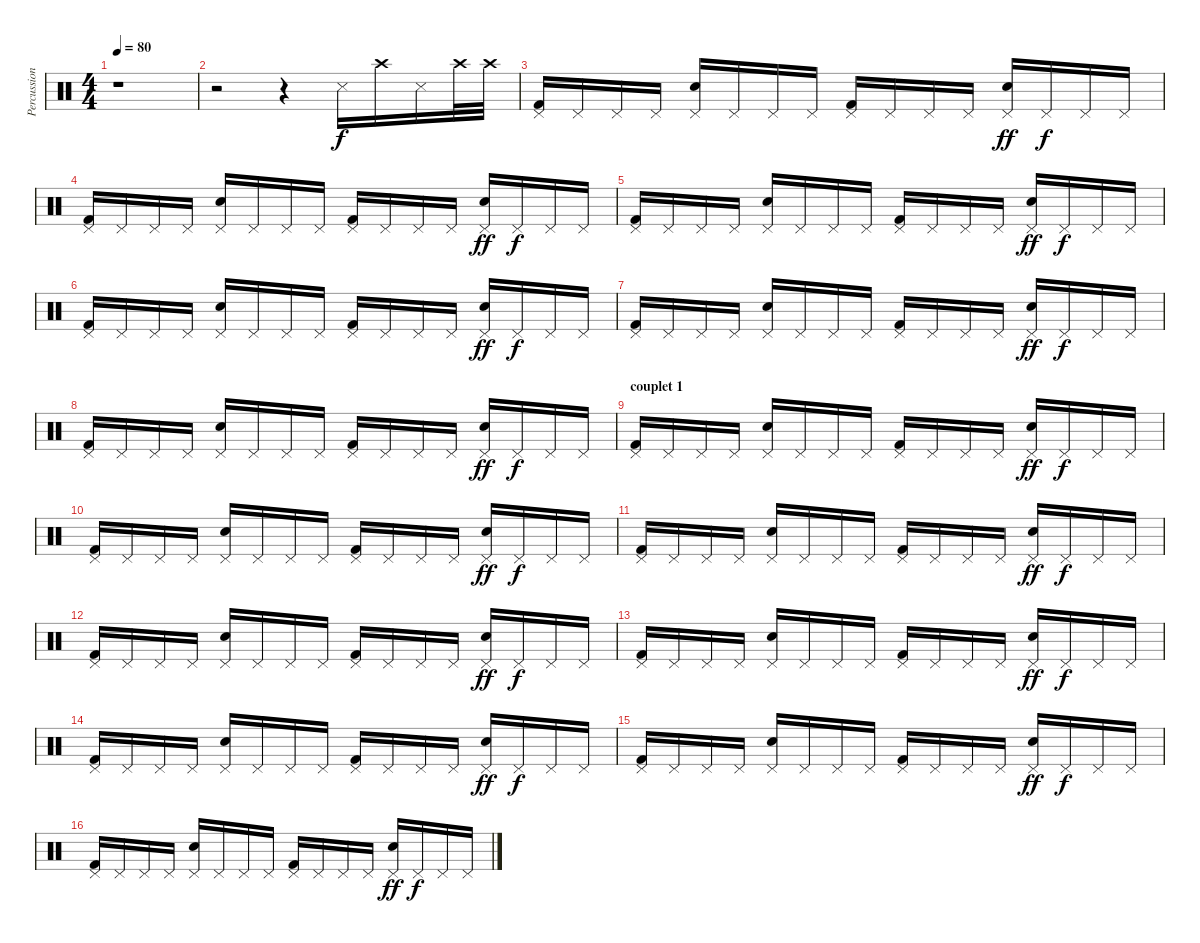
\track ("Percussions" "Percussion") {instrument percussion}
\staff {score}
\articulation defaults
\ts (4 4)
\tempo 80
\clef neutral
\ks c
r.1{dy f} |
r.2 r.4 "Snare (side stick) 3".16 "Crash high (hit)".16 "Snare (side stick) 3".16 "Crash high (hit)".32 "Crash high (hit)".32 |
("Pedal Hi-Hat (hit)" "Kick (hit) 2").16 "Pedal Hi-Hat (hit)".16 "Pedal Hi-Hat (hit)".16 "Pedal Hi-Hat (hit)".16 ("Pedal Hi-Hat (hit)" "Electric Snare (hit)").16 "Pedal Hi-Hat (hit)".16 "Pedal Hi-Hat (hit)".16 "Pedal Hi-Hat (hit)".16 ("Pedal Hi-Hat (hit)" "Kick (hit) 2").16 "Pedal Hi-Hat (hit)".16 "Pedal Hi-Hat (hit)".16 "Pedal Hi-Hat (hit)".16 ("Pedal Hi-Hat (hit)" "Electric Snare (hit)").16{dy ff} "Pedal Hi-Hat (hit)".16{dy f} "Pedal Hi-Hat (hit)".16 "Pedal Hi-Hat (hit)".16 |
("Pedal Hi-Hat (hit)" "Kick (hit) 2").16 "Pedal Hi-Hat (hit)".16 "Pedal Hi-Hat (hit)".16 "Pedal Hi-Hat (hit)".16 ("Pedal Hi-Hat (hit)" "Electric Snare (hit)").16 "Pedal Hi-Hat (hit)".16 "Pedal Hi-Hat (hit)".16 "Pedal Hi-Hat (hit)".16 ("Pedal Hi-Hat (hit)" "Kick (hit) 2").16 "Pedal Hi-Hat (hit)".16 "Pedal Hi-Hat (hit)".16 "Pedal Hi-Hat (hit)".16 ("Pedal Hi-Hat (hit)" "Electric Snare (hit)").16{dy ff} "Pedal Hi-Hat (hit)".16{dy f} "Pedal Hi-Hat (hit)".16 "Pedal Hi-Hat (hit)".16 |
("Pedal Hi-Hat (hit)" "Kick (hit) 2").16 "Pedal Hi-Hat (hit)".16 "Pedal Hi-Hat (hit)".16 "Pedal Hi-Hat (hit)".16 ("Pedal Hi-Hat (hit)" "Electric Snare (hit)").16 "Pedal Hi-Hat (hit)".16 "Pedal Hi-Hat (hit)".16 "Pedal Hi-Hat (hit)".16 ("Pedal Hi-Hat (hit)" "Kick (hit) 2").16 "Pedal Hi-Hat (hit)".16 "Pedal Hi-Hat (hit)".16 "Pedal Hi-Hat (hit)".16 ("Pedal Hi-Hat (hit)" "Electric Snare (hit)").16{dy ff} "Pedal Hi-Hat (hit)".16{dy f} "Pedal Hi-Hat (hit)".16 "Pedal Hi-Hat (hit)".16 |
("Pedal Hi-Hat (hit)" "Kick (hit) 2").16 "Pedal Hi-Hat (hit)".16 "Pedal Hi-Hat (hit)".16 "Pedal Hi-Hat (hit)".16 ("Pedal Hi-Hat (hit)" "Electric Snare (hit)").16 "Pedal Hi-Hat (hit)".16 "Pedal Hi-Hat (hit)".16 "Pedal Hi-Hat (hit)".16 ("Pedal Hi-Hat (hit)" "Kick (hit) 2").16 "Pedal Hi-Hat (hit)".16 "Pedal Hi-Hat (hit)".16 "Pedal Hi-Hat (hit)".16 ("Pedal Hi-Hat (hit)" "Electric Snare (hit)").16{dy ff} "Pedal Hi-Hat (hit)".16{dy f} "Pedal Hi-Hat (hit)".16 "Pedal Hi-Hat (hit)".16 |
("Pedal Hi-Hat (hit)" "Kick (hit) 2").16 "Pedal Hi-Hat (hit)".16 "Pedal Hi-Hat (hit)".16 "Pedal Hi-Hat (hit)".16 ("Pedal Hi-Hat (hit)" "Electric Snare (hit)").16 "Pedal Hi-Hat (hit)".16 "Pedal Hi-Hat (hit)".16 "Pedal Hi-Hat (hit)".16 ("Pedal Hi-Hat (hit)" "Kick (hit) 2").16 "Pedal Hi-Hat (hit)".16 "Pedal Hi-Hat (hit)".16 "Pedal Hi-Hat (hit)".16 ("Pedal Hi-Hat (hit)" "Electric Snare (hit)").16{dy ff} "Pedal Hi-Hat (hit)".16{dy f} "Pedal Hi-Hat (hit)".16 "Pedal Hi-Hat (hit)".16 |
("Pedal Hi-Hat (hit)" "Kick (hit) 2").16 "Pedal Hi-Hat (hit)".16 "Pedal Hi-Hat (hit)".16 "Pedal Hi-Hat (hit)".16 ("Pedal Hi-Hat (hit)" "Electric Snare (hit)").16 "Pedal Hi-Hat (hit)".16 "Pedal Hi-Hat (hit)".16 "Pedal Hi-Hat (hit)".16 ("Pedal Hi-Hat (hit)" "Kick (hit) 2").16 "Pedal Hi-Hat (hit)".16 "Pedal Hi-Hat (hit)".16 "Pedal Hi-Hat (hit)".16 ("Pedal Hi-Hat (hit)" "Electric Snare (hit)").16{dy ff} "Pedal Hi-Hat (hit)".16{dy f} "Pedal Hi-Hat (hit)".16 "Pedal Hi-Hat (hit)".16 |
\section ("" "couplet 1")
("Pedal Hi-Hat (hit)" "Kick (hit) 2").16 "Pedal Hi-Hat (hit)".16 "Pedal Hi-Hat (hit)".16 "Pedal Hi-Hat (hit)".16 ("Pedal Hi-Hat (hit)" "Electric Snare (hit)").16 "Pedal Hi-Hat (hit)".16 "Pedal Hi-Hat (hit)".16 "Pedal Hi-Hat (hit)".16 ("Pedal Hi-Hat (hit)" "Kick (hit) 2").16 "Pedal Hi-Hat (hit)".16 "Pedal Hi-Hat (hit)".16 "Pedal Hi-Hat (hit)".16 ("Pedal Hi-Hat (hit)" "Electric Snare (hit)").16{dy ff} "Pedal Hi-Hat (hit)".16{dy f} "Pedal Hi-Hat (hit)".16 "Pedal Hi-Hat (hit)".16 |
("Pedal Hi-Hat (hit)" "Kick (hit) 2").16 "Pedal Hi-Hat (hit)".16 "Pedal Hi-Hat (hit)".16 "Pedal Hi-Hat (hit)".16 ("Pedal Hi-Hat (hit)" "Electric Snare (hit)").16 "Pedal Hi-Hat (hit)".16 "Pedal Hi-Hat (hit)".16 "Pedal Hi-Hat (hit)".16 ("Pedal Hi-Hat (hit)" "Kick (hit) 2").16 "Pedal Hi-Hat (hit)".16 "Pedal Hi-Hat (hit)".16 "Pedal Hi-Hat (hit)".16 ("Pedal Hi-Hat (hit)" "Electric Snare (hit)").16{dy ff} "Pedal Hi-Hat (hit)".16{dy f} "Pedal Hi-Hat (hit)".16 "Pedal Hi-Hat (hit)".16 |
("Pedal Hi-Hat (hit)" "Kick (hit) 2").16 "Pedal Hi-Hat (hit)".16 "Pedal Hi-Hat (hit)".16 "Pedal Hi-Hat (hit)".16 ("Pedal Hi-Hat (hit)" "Electric Snare (hit)").16 "Pedal Hi-Hat (hit)".16 "Pedal Hi-Hat (hit)".16 "Pedal Hi-Hat (hit)".16 ("Pedal Hi-Hat (hit)" "Kick (hit) 2").16 "Pedal Hi-Hat (hit)".16 "Pedal Hi-Hat (hit)".16 "Pedal Hi-Hat (hit)".16 ("Pedal Hi-Hat (hit)" "Electric Snare (hit)").16{dy ff} "Pedal Hi-Hat (hit)".16{dy f} "Pedal Hi-Hat (hit)".16 "Pedal Hi-Hat (hit)".16 |
("Pedal Hi-Hat (hit)" "Kick (hit) 2").16 "Pedal Hi-Hat (hit)".16 "Pedal Hi-Hat (hit)".16 "Pedal Hi-Hat (hit)".16 ("Pedal Hi-Hat (hit)" "Electric Snare (hit)").16 "Pedal Hi-Hat (hit)".16 "Pedal Hi-Hat (hit)".16 "Pedal Hi-Hat (hit)".16 ("Pedal Hi-Hat (hit)" "Kick (hit) 2").16 "Pedal Hi-Hat (hit)".16 "Pedal Hi-Hat (hit)".16 "Pedal Hi-Hat (hit)".16 ("Pedal Hi-Hat (hit)" "Electric Snare (hit)").16{dy ff} "Pedal Hi-Hat (hit)".16{dy f} "Pedal Hi-Hat (hit)".16 "Pedal Hi-Hat (hit)".16 |
("Pedal Hi-Hat (hit)" "Kick (hit) 2").16 "Pedal Hi-Hat (hit)".16 "Pedal Hi-Hat (hit)".16 "Pedal Hi-Hat (hit)".16 ("Pedal Hi-Hat (hit)" "Electric Snare (hit)").16 "Pedal Hi-Hat (hit)".16 "Pedal Hi-Hat (hit)".16 "Pedal Hi-Hat (hit)".16 ("Pedal Hi-Hat (hit)" "Kick (hit) 2").16 "Pedal Hi-Hat (hit)".16 "Pedal Hi-Hat (hit)".16 "Pedal Hi-Hat (hit)".16 ("Pedal Hi-Hat (hit)" "Electric Snare (hit)").16{dy ff} "Pedal Hi-Hat (hit)".16{dy f} "Pedal Hi-Hat (hit)".16 "Pedal Hi-Hat (hit)".16 |
("Pedal Hi-Hat (hit)" "Kick (hit) 2").16 "Pedal Hi-Hat (hit)".16 "Pedal Hi-Hat (hit)".16 "Pedal Hi-Hat (hit)".16 ("Pedal Hi-Hat (hit)" "Electric Snare (hit)").16 "Pedal Hi-Hat (hit)".16 "Pedal Hi-Hat (hit)".16 "Pedal Hi-Hat (hit)".16 ("Pedal Hi-Hat (hit)" "Kick (hit) 2").16 "Pedal Hi-Hat (hit)".16 "Pedal Hi-Hat (hit)".16 "Pedal Hi-Hat (hit)".16 ("Pedal Hi-Hat (hit)" "Electric Snare (hit)").16{dy ff} "Pedal Hi-Hat (hit)".16{dy f} "Pedal Hi-Hat (hit)".16 "Pedal Hi-Hat (hit)".16 |
("Pedal Hi-Hat (hit)" "Kick (hit) 2").16 "Pedal Hi-Hat (hit)".16 "Pedal Hi-Hat (hit)".16 "Pedal Hi-Hat (hit)".16 ("Pedal Hi-Hat (hit)" "Electric Snare (hit)").16 "Pedal Hi-Hat (hit)".16 "Pedal Hi-Hat (hit)".16 "Pedal Hi-Hat (hit)".16 ("Pedal Hi-Hat (hit)" "Kick (hit) 2").16 "Pedal Hi-Hat (hit)".16 "Pedal Hi-Hat (hit)".16 "Pedal Hi-Hat (hit)".16 ("Pedal Hi-Hat (hit)" "Electric Snare (hit)").16{dy ff} "Pedal Hi-Hat (hit)".16{dy f} "Pedal Hi-Hat (hit)".16 "Pedal Hi-Hat (hit)".16 |
("Pedal Hi-Hat (hit)" "Kick (hit) 2").16 "Pedal Hi-Hat (hit)".16 "Pedal Hi-Hat (hit)".16 "Pedal Hi-Hat (hit)".16 ("Pedal Hi-Hat (hit)" "Electric Snare (hit)").16 "Pedal Hi-Hat (hit)".16 "Pedal Hi-Hat (hit)".16 "Pedal Hi-Hat (hit)".16 ("Pedal Hi-Hat (hit)" "Kick (hit) 2").16 "Pedal Hi-Hat (hit)".16 "Pedal Hi-Hat (hit)".16 "Pedal Hi-Hat (hit)".16 ("Pedal Hi-Hat (hit)" "Electric Snare (hit)").16{dy ff} "Pedal Hi-Hat (hit)".16{dy f} "Pedal Hi-Hat (hit)".16 "Pedal Hi-Hat (hit)".16
